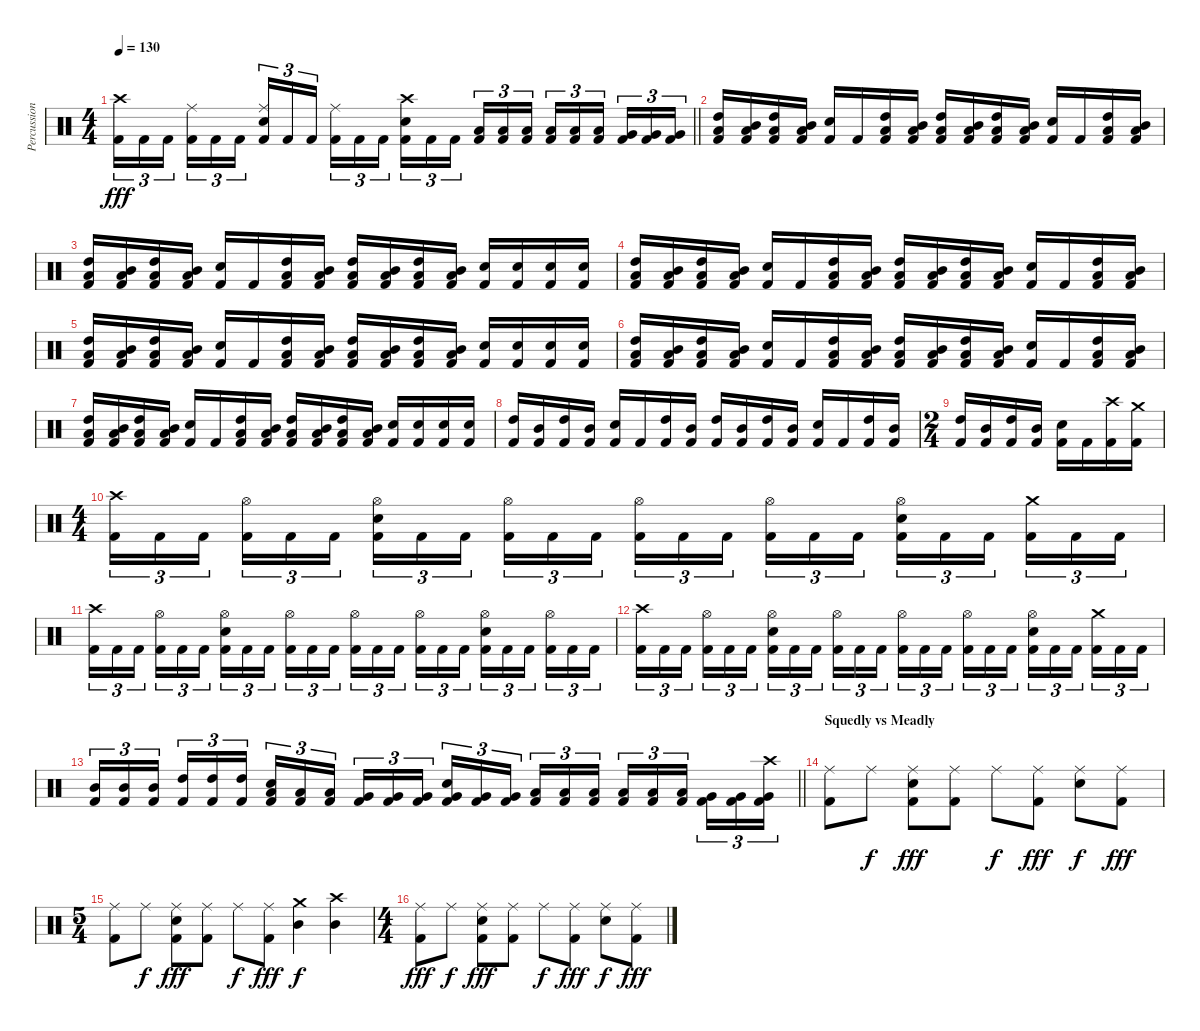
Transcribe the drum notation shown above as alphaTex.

\track ("Percussion" "Percussion") {instrument percussion}
\staff {score}
\articulation defaults
\ts (4 4)
\tempo 130
\clef neutral
\barLineRight lightlight
\ks c
("Crash high (hit)" "Kick (hit) 2").16{tu (3 2) dy fff} "Kick (hit) 2".16{tu (3 2)} "Kick (hit) 2".16{tu (3 2) beam splitsecondary} ("Ride (middle)" "Kick (hit) 2").16{tu (3 2)} "Kick (hit) 2".16{tu (3 2)} "Kick (hit) 2".16{tu (3 2)} ("Ride (middle)" "Snare (hit) 2" "Kick (hit) 2").16{tu (3 2)} "Kick (hit) 2".16{tu (3 2)} "Kick (hit) 2".16{tu (3 2) beam splitsecondary} ("Ride (middle)" "Kick (hit) 2").16{tu (3 2)} "Kick (hit) 2".16{tu (3 2)} "Kick (hit) 2".16{tu (3 2)} ("Crash high (hit)" "Snare (hit) 2" "Kick (hit) 2").16{tu (3 2)} "Kick (hit) 2".16{tu (3 2)} "Kick (hit) 2".16{tu (3 2) beam splitsecondary} ("Low Floor Tom (hit)" "Kick (hit) 2").16{tu (3 2)} ("Low Floor Tom (hit)" "Kick (hit) 2").16{tu (3 2)} ("Low Floor Tom (hit)" "Kick (hit) 2").16{tu (3 2)} ("Low Tom (hit)" "Kick (hit) 2").16{tu (3 2)} ("Low Tom (hit)" "Kick (hit) 2").16{tu (3 2)} ("Low Tom (hit)" "Kick (hit) 2").16{tu (3 2) beam splitsecondary} ("Very Low Tom (hit)" "Kick (hit) 2").16{tu (3 2)} ("Very Low Tom (hit)" "Kick (hit) 2").16{tu (3 2)} ("Very Low Tom (hit)" "Kick (hit) 2").16{tu (3 2)} |
("Kick (hit) 2" "High Tom (hit)" "Low Floor Tom (hit)").16 ("Kick (hit) 2" "Mid Tom (hit)" "Low Floor Tom (hit)").16 ("Kick (hit) 2" "High Tom (hit)" "Low Floor Tom (hit)").16 ("Kick (hit) 2" "Mid Tom (hit)" "Low Floor Tom (hit)").16 ("Kick (hit) 2" "Electric Snare (hit)").16 "Kick (hit) 2".16 ("Kick (hit) 2" "High Tom (hit)" "Low Floor Tom (hit)").16 ("Kick (hit) 2" "Mid Tom (hit)" "Low Floor Tom (hit)").16 ("Kick (hit) 2" "High Tom (hit)" "Low Floor Tom (hit)").16 ("Kick (hit) 2" "Mid Tom (hit)" "Low Floor Tom (hit)").16 ("Kick (hit) 2" "High Tom (hit)" "Low Floor Tom (hit)").16 ("Kick (hit) 2" "Mid Tom (hit)" "Low Floor Tom (hit)").16 ("Kick (hit) 2" "Electric Snare (hit)").16 "Kick (hit) 2".16 ("Kick (hit) 2" "High Tom (hit)" "Low Floor Tom (hit)").16 ("Kick (hit) 2" "Mid Tom (hit)" "Low Floor Tom (hit)").16 |
("Kick (hit) 2" "High Tom (hit)" "Low Floor Tom (hit)").16 ("Kick (hit) 2" "Mid Tom (hit)" "Low Floor Tom (hit)").16 ("Kick (hit) 2" "High Tom (hit)" "Low Floor Tom (hit)").16 ("Kick (hit) 2" "Mid Tom (hit)" "Low Floor Tom (hit)").16 ("Kick (hit) 2" "Electric Snare (hit)").16 "Kick (hit) 2".16 ("Kick (hit) 2" "High Tom (hit)" "Low Floor Tom (hit)").16 ("Kick (hit) 2" "Mid Tom (hit)" "Low Floor Tom (hit)").16 ("Kick (hit) 2" "High Tom (hit)" "Low Floor Tom (hit)").16 ("Kick (hit) 2" "Mid Tom (hit)" "Low Floor Tom (hit)").16 ("Kick (hit) 2" "High Tom (hit)" "Low Floor Tom (hit)").16 ("Kick (hit) 2" "Mid Tom (hit)" "Low Floor Tom (hit)").16 ("Kick (hit) 2" "Electric Snare (hit)").16 ("Kick (hit) 2" "Electric Snare (hit)").16 ("Kick (hit) 2" "Electric Snare (hit)").16 ("Kick (hit) 2" "Electric Snare (hit)").16 |
("Kick (hit) 2" "High Tom (hit)" "Low Floor Tom (hit)").16 ("Kick (hit) 2" "Mid Tom (hit)" "Low Floor Tom (hit)").16 ("Kick (hit) 2" "High Tom (hit)" "Low Floor Tom (hit)").16 ("Kick (hit) 2" "Mid Tom (hit)" "Low Floor Tom (hit)").16 ("Kick (hit) 2" "Electric Snare (hit)").16 "Kick (hit) 2".16 ("Kick (hit) 2" "High Tom (hit)" "Low Floor Tom (hit)").16 ("Kick (hit) 2" "Mid Tom (hit)" "Low Floor Tom (hit)").16 ("Kick (hit) 2" "High Tom (hit)" "Low Floor Tom (hit)").16 ("Kick (hit) 2" "Mid Tom (hit)" "Low Floor Tom (hit)").16 ("Kick (hit) 2" "High Tom (hit)" "Low Floor Tom (hit)").16 ("Kick (hit) 2" "Mid Tom (hit)" "Low Floor Tom (hit)").16 ("Kick (hit) 2" "Electric Snare (hit)").16 "Kick (hit) 2".16 ("Kick (hit) 2" "High Tom (hit)" "Low Floor Tom (hit)").16 ("Kick (hit) 2" "Mid Tom (hit)" "Low Floor Tom (hit)").16 |
("Kick (hit) 2" "High Tom (hit)" "Low Floor Tom (hit)").16 ("Kick (hit) 2" "Mid Tom (hit)" "Low Floor Tom (hit)").16 ("Kick (hit) 2" "High Tom (hit)" "Low Floor Tom (hit)").16 ("Kick (hit) 2" "Mid Tom (hit)" "Low Floor Tom (hit)").16 ("Kick (hit) 2" "Electric Snare (hit)").16 "Kick (hit) 2".16 ("Kick (hit) 2" "High Tom (hit)" "Low Floor Tom (hit)").16 ("Kick (hit) 2" "Mid Tom (hit)" "Low Floor Tom (hit)").16 ("Kick (hit) 2" "High Tom (hit)" "Low Floor Tom (hit)").16 ("Kick (hit) 2" "Mid Tom (hit)" "Low Floor Tom (hit)").16 ("Kick (hit) 2" "High Tom (hit)" "Low Floor Tom (hit)").16 ("Kick (hit) 2" "Mid Tom (hit)" "Low Floor Tom (hit)").16 ("Kick (hit) 2" "Electric Snare (hit)").16 ("Kick (hit) 2" "Electric Snare (hit)").16 ("Kick (hit) 2" "Electric Snare (hit)").16 ("Kick (hit) 2" "Electric Snare (hit)").16 |
("Kick (hit) 2" "High Tom (hit)" "Low Floor Tom (hit)").16 ("Kick (hit) 2" "Mid Tom (hit)" "Low Floor Tom (hit)").16 ("Kick (hit) 2" "High Tom (hit)" "Low Floor Tom (hit)").16 ("Kick (hit) 2" "Mid Tom (hit)" "Low Floor Tom (hit)").16 ("Kick (hit) 2" "Electric Snare (hit)").16 "Kick (hit) 2".16 ("Kick (hit) 2" "High Tom (hit)" "Low Floor Tom (hit)").16 ("Kick (hit) 2" "Mid Tom (hit)" "Low Floor Tom (hit)").16 ("Kick (hit) 2" "High Tom (hit)" "Low Floor Tom (hit)").16 ("Kick (hit) 2" "Mid Tom (hit)" "Low Floor Tom (hit)").16 ("Kick (hit) 2" "High Tom (hit)" "Low Floor Tom (hit)").16 ("Kick (hit) 2" "Mid Tom (hit)" "Low Floor Tom (hit)").16 ("Kick (hit) 2" "Electric Snare (hit)").16 "Kick (hit) 2".16 ("Kick (hit) 2" "High Tom (hit)" "Low Floor Tom (hit)").16 ("Kick (hit) 2" "Mid Tom (hit)" "Low Floor Tom (hit)").16 |
("Kick (hit) 2" "High Tom (hit)" "Low Floor Tom (hit)").16 ("Kick (hit) 2" "Mid Tom (hit)" "Low Floor Tom (hit)").16 ("Kick (hit) 2" "High Tom (hit)" "Low Floor Tom (hit)").16 ("Kick (hit) 2" "Mid Tom (hit)" "Low Floor Tom (hit)").16 ("Kick (hit) 2" "Electric Snare (hit)").16 "Kick (hit) 2".16 ("Kick (hit) 2" "High Tom (hit)" "Low Floor Tom (hit)").16 ("Kick (hit) 2" "Mid Tom (hit)" "Low Floor Tom (hit)").16 ("Kick (hit) 2" "High Tom (hit)" "Low Floor Tom (hit)").16 ("Kick (hit) 2" "Mid Tom (hit)" "Low Floor Tom (hit)").16 ("Kick (hit) 2" "High Tom (hit)" "Low Floor Tom (hit)").16 ("Kick (hit) 2" "Mid Tom (hit)" "Low Floor Tom (hit)").16 ("Kick (hit) 2" "Electric Snare (hit)").16 ("Kick (hit) 2" "Electric Snare (hit)").16 ("Kick (hit) 2" "Electric Snare (hit)").16 ("Kick (hit) 2" "Electric Snare (hit)").16 |
("Kick (hit) 2" "High Tom (hit)").16 ("Kick (hit) 2" "Mid Tom (hit)").16 ("Kick (hit) 2" "High Tom (hit)").16 ("Kick (hit) 2" "Mid Tom (hit)").16 ("Kick (hit) 2" "Electric Snare (hit)").16 "Kick (hit) 2".16 ("Kick (hit) 2" "High Tom (hit)").16 ("Kick (hit) 2" "Mid Tom (hit)").16 ("Kick (hit) 2" "High Tom (hit)").16 ("Kick (hit) 2" "Mid Tom (hit)").16 ("Kick (hit) 2" "High Tom (hit)").16 ("Kick (hit) 2" "Mid Tom (hit)").16 ("Kick (hit) 2" "Electric Snare (hit)").16 "Kick (hit) 2".16 ("Kick (hit) 2" "High Tom (hit)").16 ("Kick (hit) 2" "Mid Tom (hit)").16 |
\ts (2 4)
("Kick (hit) 2" "High Tom (hit)").16 ("Kick (hit) 2" "Mid Tom (hit)").16 ("Kick (hit) 2" "High Tom (hit)").16 ("Kick (hit) 2" "Mid Tom (hit)").16 ("Kick (hit) 2" "Electric Snare (hit)").16 "Kick (hit) 2".16 ("Kick (hit) 2" "Crash high (hit)").16 ("Kick (hit) 2" "Crash medium (hit)").16 |
\ts (4 4)
("Crash high (hit)" "Kick (hit) 2").16{tu (3 2)} "Kick (hit) 2".16{tu (3 2)} "Kick (hit) 2".16{tu (3 2) beam splitsecondary} ("Hi-Hat (open)" "Kick (hit) 2").16{tu (3 2)} "Kick (hit) 2".16{tu (3 2)} "Kick (hit) 2".16{tu (3 2)} ("Hi-Hat (open)" "Snare (hit) 2" "Kick (hit) 2").16{tu (3 2)} "Kick (hit) 2".16{tu (3 2)} "Kick (hit) 2".16{tu (3 2) beam splitsecondary} ("Hi-Hat (open)" "Kick (hit) 2").16{tu (3 2)} "Kick (hit) 2".16{tu (3 2)} "Kick (hit) 2".16{tu (3 2)} ("Hi-Hat (open)" "Kick (hit) 2").16{tu (3 2)} "Kick (hit) 2".16{tu (3 2)} "Kick (hit) 2".16{tu (3 2) beam splitsecondary} ("Hi-Hat (open)" "Kick (hit) 2").16{tu (3 2)} "Kick (hit) 2".16{tu (3 2)} "Kick (hit) 2".16{tu (3 2)} ("Hi-Hat (open)" "Snare (hit) 2" "Kick (hit) 2").16{tu (3 2)} "Kick (hit) 2".16{tu (3 2)} "Kick (hit) 2".16{tu (3 2) beam splitsecondary} ("Crash medium (hit)" "Kick (hit) 2").16{tu (3 2)} "Kick (hit) 2".16{tu (3 2)} "Kick (hit) 2".16{tu (3 2)} |
("Crash high (hit)" "Kick (hit) 2").16{tu (3 2)} "Kick (hit) 2".16{tu (3 2)} "Kick (hit) 2".16{tu (3 2) beam splitsecondary} ("Hi-Hat (open)" "Kick (hit) 2").16{tu (3 2)} "Kick (hit) 2".16{tu (3 2)} "Kick (hit) 2".16{tu (3 2)} ("Hi-Hat (open)" "Snare (hit) 2" "Kick (hit) 2").16{tu (3 2)} "Kick (hit) 2".16{tu (3 2)} "Kick (hit) 2".16{tu (3 2) beam splitsecondary} ("Hi-Hat (open)" "Kick (hit) 2").16{tu (3 2)} "Kick (hit) 2".16{tu (3 2)} "Kick (hit) 2".16{tu (3 2)} ("Hi-Hat (open)" "Kick (hit) 2").16{tu (3 2)} "Kick (hit) 2".16{tu (3 2)} "Kick (hit) 2".16{tu (3 2) beam splitsecondary} ("Hi-Hat (open)" "Kick (hit) 2").16{tu (3 2)} "Kick (hit) 2".16{tu (3 2)} "Kick (hit) 2".16{tu (3 2)} ("Hi-Hat (open)" "Snare (hit) 2" "Kick (hit) 2").16{tu (3 2)} "Kick (hit) 2".16{tu (3 2)} "Kick (hit) 2".16{tu (3 2) beam splitsecondary} ("Hi-Hat (open)" "Kick (hit) 2").16{tu (3 2)} "Kick (hit) 2".16{tu (3 2)} "Kick (hit) 2".16{tu (3 2)} |
("Crash high (hit)" "Kick (hit) 2").16{tu (3 2)} "Kick (hit) 2".16{tu (3 2)} "Kick (hit) 2".16{tu (3 2) beam splitsecondary} ("Hi-Hat (open)" "Kick (hit) 2").16{tu (3 2)} "Kick (hit) 2".16{tu (3 2)} "Kick (hit) 2".16{tu (3 2)} ("Hi-Hat (open)" "Snare (hit) 2" "Kick (hit) 2").16{tu (3 2)} "Kick (hit) 2".16{tu (3 2)} "Kick (hit) 2".16{tu (3 2) beam splitsecondary} ("Hi-Hat (open)" "Kick (hit) 2").16{tu (3 2)} "Kick (hit) 2".16{tu (3 2)} "Kick (hit) 2".16{tu (3 2)} ("Hi-Hat (open)" "Kick (hit) 2").16{tu (3 2)} "Kick (hit) 2".16{tu (3 2)} "Kick (hit) 2".16{tu (3 2) beam splitsecondary} ("Hi-Hat (open)" "Kick (hit) 2").16{tu (3 2)} "Kick (hit) 2".16{tu (3 2)} "Kick (hit) 2".16{tu (3 2)} ("Hi-Hat (open)" "Snare (hit) 2" "Kick (hit) 2").16{tu (3 2)} "Kick (hit) 2".16{tu (3 2)} "Kick (hit) 2".16{tu (3 2) beam splitsecondary} ("Crash medium (hit)" "Kick (hit) 2").16{tu (3 2)} "Kick (hit) 2".16{tu (3 2)} "Kick (hit) 2".16{tu (3 2)} |
\barLineRight lightlight
("Mid Tom (hit)" "Kick (hit) 2").16{tu (3 2)} ("Mid Tom (hit)" "Kick (hit) 2").16{tu (3 2)} ("Mid Tom (hit)" "Kick (hit) 2").16{tu (3 2) beam splitsecondary} ("High Tom (hit)" "Kick (hit) 2").16{tu (3 2)} ("High Tom (hit)" "Kick (hit) 2").16{tu (3 2)} ("High Tom (hit)" "Kick (hit) 2").16{tu (3 2)} ("Snare (hit) 2" "Low Tom (hit)" "Kick (hit) 2").16{tu (3 2)} ("Low Tom (hit)" "Kick (hit) 2").16{tu (3 2)} ("Low Tom (hit)" "Kick (hit) 2").16{tu (3 2) beam splitsecondary} ("Very Low Tom (hit)" "Kick (hit) 2").16{tu (3 2)} ("Very Low Tom (hit)" "Kick (hit) 2").16{tu (3 2)} ("Very Low Tom (hit)" "Kick (hit) 2").16{tu (3 2)} ("Snare (hit) 2" "Very Low Tom (hit)" "Kick (hit) 2").16{tu (3 2)} ("Very Low Tom (hit)" "Kick (hit) 2").16{tu (3 2)} ("Very Low Tom (hit)" "Kick (hit) 2").16{tu (3 2) beam splitsecondary} ("Low Floor Tom (hit)" "Kick (hit) 2").16{tu (3 2)} ("Low Floor Tom (hit)" "Kick (hit) 2").16{tu (3 2)} ("Low Floor Tom (hit)" "Kick (hit) 2").16{tu (3 2)} ("Low Tom (hit)" "Kick (hit) 2").16{tu (3 2)} ("Low Tom (hit)" "Kick (hit) 2").16{tu (3 2)} ("Low Tom (hit)" "Kick (hit) 2").16{tu (3 2) beam splitsecondary} ("Very Low Tom (hit)" "Kick (hit) 2").16{tu (3 2)} ("Very Low Tom (hit)" "Kick (hit) 2").16{tu (3 2)} ("Crash high (hit)" "Very Low Tom (hit)" "Kick (hit) 2").16{tu (3 2)} |
\section ("" "Squedly vs Meadly")
("Ride (middle)" "Kick (hit) 2").8 "Ride (middle)".8{dy f} ("Ride (middle)" "Snare (hit) 2" "Kick (hit) 2").8{dy fff} ("Ride (middle)" "Kick (hit) 2").8 "Ride (middle)".8{dy f} ("Ride (middle)" "Kick (hit) 2").8{dy fff} ("Ride (middle)" "Snare (hit) 2").8{dy f} ("Ride (middle)" "Kick (hit) 2").8{dy fff} |
\ts (5 4)
("Ride (middle)" "Kick (hit) 2").8 "Ride (middle)".8{dy f} ("Ride (middle)" "Snare (hit) 2" "Kick (hit) 2").8{dy fff} ("Ride (middle)" "Kick (hit) 2").8 "Ride (middle)".8{dy f} ("Ride (middle)" "Kick (hit) 2").8{dy fff} ("Crash medium (hit)" "Mid Tom (hit)").4{dy f} ("Crash high (hit)" "Mid Tom (hit)").4 |
\ts (4 4)
("Ride (middle)" "Kick (hit) 2").8{dy fff} "Ride (middle)".8{dy f} ("Ride (middle)" "Snare (hit) 2" "Kick (hit) 2").8{dy fff} ("Ride (middle)" "Kick (hit) 2").8 "Ride (middle)".8{dy f} ("Ride (middle)" "Kick (hit) 2").8{dy fff} ("Ride (middle)" "Snare (hit) 2").8{dy f} ("Ride (middle)" "Kick (hit) 2").8{dy fff}
